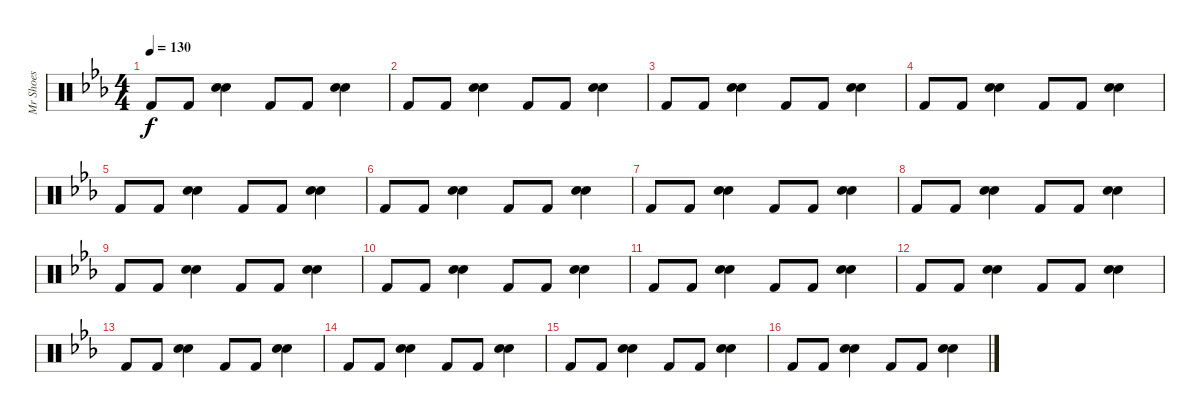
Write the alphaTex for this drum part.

\track ("Mr Shoes " "Mr Shoes ") {instrument percussion}
\staff {score}
\articulation defaults
\ts (4 4)
\tempo 130
\clef neutral
\ks eb "Kick (hit) 2".8{dy f} "Kick (hit) 2".8
("Electric Snare (hit)" "Snare (hit) 2").4 "Kick (hit) 2".8 "Kick (hit) 2".8 ("Electric Snare (hit)" "Snare (hit) 2").4 |
"Kick (hit) 2".8 "Kick (hit) 2".8 ("Electric Snare (hit)" "Snare (hit) 2").4 "Kick (hit) 2".8 "Kick (hit) 2".8 ("Electric Snare (hit)" "Snare (hit) 2").4 |
"Kick (hit) 2".8 "Kick (hit) 2".8 ("Electric Snare (hit)" "Snare (hit) 2").4 "Kick (hit) 2".8 "Kick (hit) 2".8 ("Electric Snare (hit)" "Snare (hit) 2").4 |
"Kick (hit) 2".8 "Kick (hit) 2".8 ("Electric Snare (hit)" "Snare (hit) 2").4 "Kick (hit) 2".8 "Kick (hit) 2".8 ("Electric Snare (hit)" "Snare (hit) 2").4 |
"Kick (hit) 2".8 "Kick (hit) 2".8 ("Electric Snare (hit)" "Snare (hit) 2").4 "Kick (hit) 2".8 "Kick (hit) 2".8 ("Electric Snare (hit)" "Snare (hit) 2").4 |
"Kick (hit) 2".8 "Kick (hit) 2".8 ("Electric Snare (hit)" "Snare (hit) 2").4 "Kick (hit) 2".8 "Kick (hit) 2".8 ("Electric Snare (hit)" "Snare (hit) 2").4 |
"Kick (hit) 2".8 "Kick (hit) 2".8 ("Electric Snare (hit)" "Snare (hit) 2").4 "Kick (hit) 2".8 "Kick (hit) 2".8 ("Electric Snare (hit)" "Snare (hit) 2").4 |
"Kick (hit) 2".8 "Kick (hit) 2".8 ("Electric Snare (hit)" "Snare (hit) 2").4 "Kick (hit) 2".8 "Kick (hit) 2".8 ("Electric Snare (hit)" "Snare (hit) 2").4 |
"Kick (hit) 2".8 "Kick (hit) 2".8 ("Electric Snare (hit)" "Snare (hit) 2").4 "Kick (hit) 2".8 "Kick (hit) 2".8 ("Electric Snare (hit)" "Snare (hit) 2").4 |
"Kick (hit) 2".8 "Kick (hit) 2".8 ("Electric Snare (hit)" "Snare (hit) 2").4 "Kick (hit) 2".8 "Kick (hit) 2".8 ("Electric Snare (hit)" "Snare (hit) 2").4 |
"Kick (hit) 2".8 "Kick (hit) 2".8 ("Electric Snare (hit)" "Snare (hit) 2").4 "Kick (hit) 2".8 "Kick (hit) 2".8 ("Electric Snare (hit)" "Snare (hit) 2").4 |
"Kick (hit) 2".8 "Kick (hit) 2".8 ("Electric Snare (hit)" "Snare (hit) 2").4 "Kick (hit) 2".8 "Kick (hit) 2".8 ("Electric Snare (hit)" "Snare (hit) 2").4 |
"Kick (hit) 2".8 "Kick (hit) 2".8 ("Electric Snare (hit)" "Snare (hit) 2").4 "Kick (hit) 2".8 "Kick (hit) 2".8 ("Electric Snare (hit)" "Snare (hit) 2").4 |
"Kick (hit) 2".8 "Kick (hit) 2".8 ("Electric Snare (hit)" "Snare (hit) 2").4 "Kick (hit) 2".8 "Kick (hit) 2".8 ("Electric Snare (hit)" "Snare (hit) 2").4 |
"Kick (hit) 2".8 "Kick (hit) 2".8 ("Electric Snare (hit)" "Snare (hit) 2").4 "Kick (hit) 2".8 "Kick (hit) 2".8 ("Electric Snare (hit)" "Snare (hit) 2").4 |
"Kick (hit) 2".8 "Kick (hit) 2".8 ("Electric Snare (hit)" "Snare (hit) 2").4 "Kick (hit) 2".8 "Kick (hit) 2".8 ("Electric Snare (hit)" "Snare (hit) 2").4
